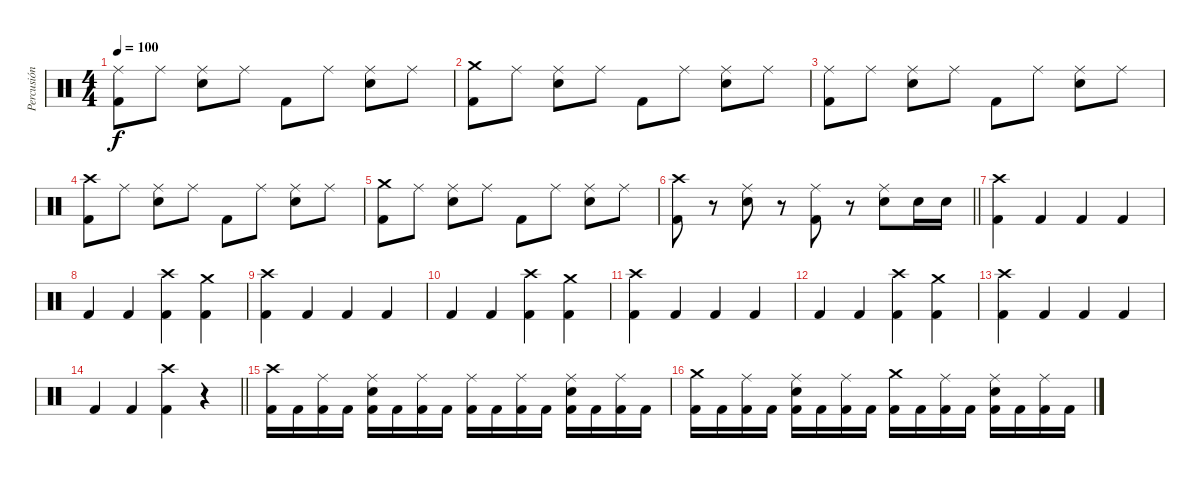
\track ("Percusión" "Percusión") {instrument percussion}
\staff {score}
\articulation defaults
\ts (4 4)
\tempo 100
\clef neutral
\ks c
("Ride (middle)" "Kick (hit) 2").8{dy f} "Ride (middle)".8 ("Ride (middle)" "Snare (hit) 2").8 "Ride (middle)".8 "Kick (hit) 2".8 "Ride (middle)".8 ("Ride (middle)" "Snare (hit) 2").8 "Ride (middle)".8 |
("Crash medium (hit)" "Kick (hit) 2").8 "Ride (middle)".8 ("Ride (middle)" "Snare (hit) 2").8 "Ride (middle)".8 "Kick (hit) 2".8 "Ride (middle)".8 ("Ride (middle)" "Snare (hit) 2").8 "Ride (middle)".8 |
("Ride (middle)" "Kick (hit) 2").8 "Ride (middle)".8 ("Ride (middle)" "Snare (hit) 2").8 "Ride (middle)".8 "Kick (hit) 2".8 "Ride (middle)".8 ("Ride (middle)" "Snare (hit) 2").8 "Ride (middle)".8 |
("Crash high (hit)" "Kick (hit) 2").8 "Ride (middle)".8 ("Ride (middle)" "Snare (hit) 2").8 "Ride (middle)".8 "Kick (hit) 2".8 "Ride (middle)".8 ("Ride (middle)" "Snare (hit) 2").8 "Ride (middle)".8 |
("Crash medium (hit)" "Kick (hit) 2").8 "Ride (middle)".8 ("Ride (middle)" "Snare (hit) 2").8 "Ride (middle)".8 "Kick (hit) 2".8 "Ride (middle)".8 ("Ride (middle)" "Snare (hit) 2").8 "Ride (middle)".8 |
\barLineRight lightlight
("Crash high (hit)" "Kick (hit) 2").8 r.8 ("Ride (middle)" "Snare (hit) 2").8 r.8 ("Ride (middle)" "Kick (hit) 2").8 r.8 ("Ride (middle)" "Snare (hit) 2").8 "Snare (hit) 2".16 "Snare (hit) 2".16 |
("Crash high (hit)" "Kick (hit) 2").4 "Kick (hit) 2".4 "Kick (hit) 2".4 "Kick (hit) 2".4 |
"Kick (hit) 2".4 "Kick (hit) 2".4 ("Crash high (hit)" "Kick (hit) 2").4 ("Crash medium (hit)" "Kick (hit) 2").4 |
("Crash high (hit)" "Kick (hit) 2").4 "Kick (hit) 2".4 "Kick (hit) 2".4 "Kick (hit) 2".4 |
"Kick (hit) 2".4 "Kick (hit) 2".4 ("Crash high (hit)" "Kick (hit) 2").4 ("Crash medium (hit)" "Kick (hit) 2").4 |
("Crash high (hit)" "Kick (hit) 2").4 "Kick (hit) 2".4 "Kick (hit) 2".4 "Kick (hit) 2".4 |
"Kick (hit) 2".4 "Kick (hit) 2".4 ("Crash high (hit)" "Kick (hit) 2").4 ("Crash medium (hit)" "Kick (hit) 2").4 |
("Crash high (hit)" "Kick (hit) 2").4 "Kick (hit) 2".4 "Kick (hit) 2".4 "Kick (hit) 2".4 |
\barLineRight lightlight "Kick (hit) 2".4 "Kick (hit) 2".4
("Crash high (hit)" "Kick (hit) 2").4 r.4 |
("Crash high (hit)" "Kick (hit) 2").16 "Kick (hit) 2".16 ("Ride (middle)" "Kick (hit) 2").16 "Kick (hit) 2".16 ("Ride (middle)" "Snare (hit) 2" "Kick (hit) 2").16 "Kick (hit) 2".16 ("Ride (middle)" "Kick (hit) 2").16 "Kick (hit) 2".16 ("Ride (middle)" "Kick (hit) 2").16 "Kick (hit) 2".16 ("Ride (middle)" "Kick (hit) 2").16 "Kick (hit) 2".16 ("Ride (middle)" "Snare (hit) 2" "Kick (hit) 2").16 "Kick (hit) 2".16 ("Ride (middle)" "Kick (hit) 2").16 "Kick (hit) 2".16 |
("Crash medium (hit)" "Kick (hit) 2").16 "Kick (hit) 2".16 ("Ride (middle)" "Kick (hit) 2").16 "Kick (hit) 2".16 ("Ride (middle)" "Snare (hit) 2" "Kick (hit) 2").16 "Kick (hit) 2".16 ("Ride (middle)" "Kick (hit) 2").16 "Kick (hit) 2".16 ("Crash medium (hit)" "Kick (hit) 2").16 "Kick (hit) 2".16 ("Ride (middle)" "Kick (hit) 2").16 "Kick (hit) 2".16 ("Ride (middle)" "Snare (hit) 2" "Kick (hit) 2").16 "Kick (hit) 2".16 ("Ride (middle)" "Kick (hit) 2").16 "Kick (hit) 2".16
